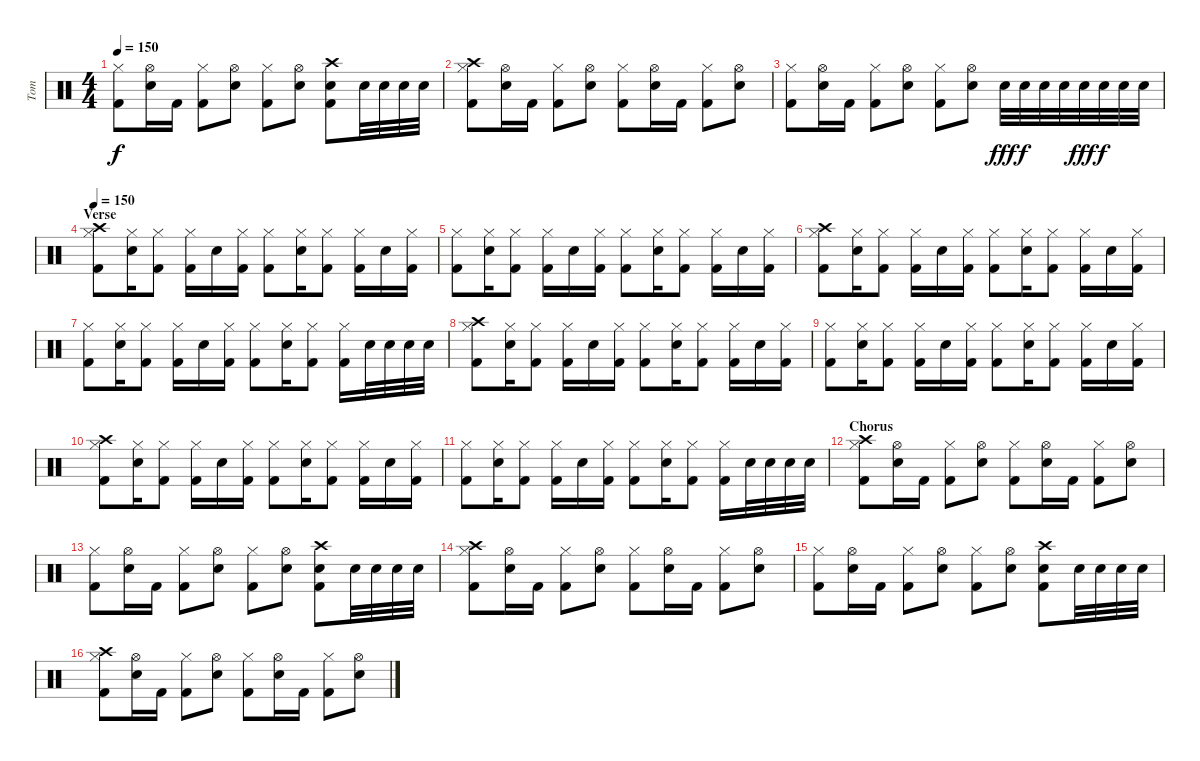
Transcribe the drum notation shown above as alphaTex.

\track ("Tom" "Tom") {instrument percussion}
\staff {score}
\articulation defaults
\ts (4 4)
\tempo 150
\clef neutral
\ks c
("Hi-Hat (closed)" "Kick (hit) 2").8{dy f} ("Hi-Hat (open)" "Electric Snare (hit)").16 "Kick (hit) 2".16 ("Hi-Hat (closed)" "Kick (hit) 2").8 ("Hi-Hat (open)" "Electric Snare (hit)").8 ("Hi-Hat (closed)" "Kick (hit) 2").8 ("Hi-Hat (open)" "Electric Snare (hit)").8 ("Crash high (hit)" "Electric Snare (hit)" "Kick (hit) 2").8 "Electric Snare (hit)".32 "Electric Snare (hit)".32 "Electric Snare (hit)".32 "Electric Snare (hit)".32 |
("Crash high (hit)" "Hi-Hat (closed)" "Kick (hit) 2").8 ("Hi-Hat (open)" "Electric Snare (hit)").16 "Kick (hit) 2".16 ("Hi-Hat (closed)" "Kick (hit) 2").8 ("Hi-Hat (open)" "Electric Snare (hit)").8 ("Hi-Hat (closed)" "Kick (hit) 2").8 ("Hi-Hat (open)" "Electric Snare (hit)").16 "Kick (hit) 2".16 ("Hi-Hat (closed)" "Kick (hit) 2").8 ("Hi-Hat (open)" "Electric Snare (hit)").8 |
("Hi-Hat (closed)" "Kick (hit) 2").8 ("Hi-Hat (open)" "Electric Snare (hit)").16 "Kick (hit) 2".16 ("Hi-Hat (closed)" "Kick (hit) 2").8 ("Hi-Hat (open)" "Electric Snare (hit)").8 ("Hi-Hat (closed)" "Kick (hit) 2").8 ("Hi-Hat (open)" "Electric Snare (hit)").8 "Electric Snare (hit)".32{dy fff} "Electric Snare (hit)".32{dy f} "Electric Snare (hit)".32 "Electric Snare (hit)".32 "Electric Snare (hit)".32{dy fff} "Electric Snare (hit)".32{dy f} "Electric Snare (hit)".32 "Electric Snare (hit)".32 |
\section ("" "Verse")
\tempo 150
("Crash high (hit)" "Hi-Hat (closed)" "Kick (hit) 2").8 ("Hi-Hat (closed)" "Electric Snare (hit)").16 ("Hi-Hat (closed)" "Kick (hit) 2").8 ("Hi-Hat (closed)" "Kick (hit) 2").16 "Electric Snare (hit)".16 ("Hi-Hat (closed)" "Kick (hit) 2").16 ("Hi-Hat (closed)" "Kick (hit) 2").8 ("Hi-Hat (closed)" "Electric Snare (hit)").16 ("Hi-Hat (closed)" "Kick (hit) 2").8 ("Hi-Hat (closed)" "Kick (hit) 2").16 "Electric Snare (hit)".16 ("Hi-Hat (closed)" "Kick (hit) 2").16 |
("Hi-Hat (closed)" "Kick (hit) 2").8 ("Hi-Hat (closed)" "Electric Snare (hit)").16 ("Hi-Hat (closed)" "Kick (hit) 2").8 ("Hi-Hat (closed)" "Kick (hit) 2").16 "Electric Snare (hit)".16 ("Hi-Hat (closed)" "Kick (hit) 2").16 ("Hi-Hat (closed)" "Kick (hit) 2").8 ("Hi-Hat (closed)" "Electric Snare (hit)").16 ("Hi-Hat (closed)" "Kick (hit) 2").8 ("Hi-Hat (closed)" "Kick (hit) 2").16 "Electric Snare (hit)".16 ("Hi-Hat (closed)" "Kick (hit) 2").16 |
("Crash high (hit)" "Hi-Hat (closed)" "Kick (hit) 2").8 ("Hi-Hat (closed)" "Electric Snare (hit)").16 ("Hi-Hat (closed)" "Kick (hit) 2").8 ("Hi-Hat (closed)" "Kick (hit) 2").16 "Electric Snare (hit)".16 ("Hi-Hat (closed)" "Kick (hit) 2").16 ("Hi-Hat (closed)" "Kick (hit) 2").8 ("Hi-Hat (closed)" "Electric Snare (hit)").16 ("Hi-Hat (closed)" "Kick (hit) 2").8 ("Hi-Hat (closed)" "Kick (hit) 2").16 "Electric Snare (hit)".16 ("Hi-Hat (closed)" "Kick (hit) 2").16 |
("Hi-Hat (closed)" "Kick (hit) 2").8 ("Hi-Hat (closed)" "Electric Snare (hit)").16 ("Hi-Hat (closed)" "Kick (hit) 2").8 ("Hi-Hat (closed)" "Kick (hit) 2").16 "Electric Snare (hit)".16 ("Hi-Hat (closed)" "Kick (hit) 2").16 ("Hi-Hat (closed)" "Kick (hit) 2").8 ("Hi-Hat (closed)" "Electric Snare (hit)").16 ("Hi-Hat (closed)" "Kick (hit) 2").8 ("Hi-Hat (closed)" "Kick (hit) 2").16 "Electric Snare (hit)".32 "Electric Snare (hit)".32 "Electric Snare (hit)".32 "Electric Snare (hit)".32 |
("Crash high (hit)" "Hi-Hat (closed)" "Kick (hit) 2").8 ("Hi-Hat (closed)" "Electric Snare (hit)").16 ("Hi-Hat (closed)" "Kick (hit) 2").8 ("Hi-Hat (closed)" "Kick (hit) 2").16 "Electric Snare (hit)".16 ("Hi-Hat (closed)" "Kick (hit) 2").16 ("Hi-Hat (closed)" "Kick (hit) 2").8 ("Hi-Hat (closed)" "Electric Snare (hit)").16 ("Hi-Hat (closed)" "Kick (hit) 2").8 ("Hi-Hat (closed)" "Kick (hit) 2").16 "Electric Snare (hit)".16 ("Hi-Hat (closed)" "Kick (hit) 2").16 |
("Hi-Hat (closed)" "Kick (hit) 2").8 ("Hi-Hat (closed)" "Electric Snare (hit)").16 ("Hi-Hat (closed)" "Kick (hit) 2").8 ("Hi-Hat (closed)" "Kick (hit) 2").16 "Electric Snare (hit)".16 ("Hi-Hat (closed)" "Kick (hit) 2").16 ("Hi-Hat (closed)" "Kick (hit) 2").8 ("Hi-Hat (closed)" "Electric Snare (hit)").16 ("Hi-Hat (closed)" "Kick (hit) 2").8 ("Hi-Hat (closed)" "Kick (hit) 2").16 "Electric Snare (hit)".16 ("Hi-Hat (closed)" "Kick (hit) 2").16 |
("Crash high (hit)" "Hi-Hat (closed)" "Kick (hit) 2").8 ("Hi-Hat (closed)" "Electric Snare (hit)").16 ("Hi-Hat (closed)" "Kick (hit) 2").8 ("Hi-Hat (closed)" "Kick (hit) 2").16 "Electric Snare (hit)".16 ("Hi-Hat (closed)" "Kick (hit) 2").16 ("Hi-Hat (closed)" "Kick (hit) 2").8 ("Hi-Hat (closed)" "Electric Snare (hit)").16 ("Hi-Hat (closed)" "Kick (hit) 2").8 ("Hi-Hat (closed)" "Kick (hit) 2").16 "Electric Snare (hit)".16 ("Hi-Hat (closed)" "Kick (hit) 2").16 |
("Hi-Hat (closed)" "Kick (hit) 2").8 ("Hi-Hat (closed)" "Electric Snare (hit)").16 ("Hi-Hat (closed)" "Kick (hit) 2").8 ("Hi-Hat (closed)" "Kick (hit) 2").16 "Electric Snare (hit)".16 ("Hi-Hat (closed)" "Kick (hit) 2").16 ("Hi-Hat (closed)" "Kick (hit) 2").8 ("Hi-Hat (closed)" "Electric Snare (hit)").16 ("Hi-Hat (closed)" "Kick (hit) 2").8 ("Hi-Hat (closed)" "Kick (hit) 2").16 "Electric Snare (hit)".32 "Electric Snare (hit)".32 "Electric Snare (hit)".32 "Electric Snare (hit)".32 |
\section ("" "Chorus")
("Crash high (hit)" "Hi-Hat (closed)" "Kick (hit) 2").8 ("Hi-Hat (open)" "Electric Snare (hit)").16 "Kick (hit) 2".16 ("Hi-Hat (closed)" "Kick (hit) 2").8 ("Hi-Hat (open)" "Electric Snare (hit)").8 ("Hi-Hat (closed)" "Kick (hit) 2").8 ("Hi-Hat (open)" "Electric Snare (hit)").16 "Kick (hit) 2".16 ("Hi-Hat (closed)" "Kick (hit) 2").8 ("Hi-Hat (open)" "Electric Snare (hit)").8 |
("Hi-Hat (closed)" "Kick (hit) 2").8 ("Hi-Hat (open)" "Electric Snare (hit)").16 "Kick (hit) 2".16 ("Hi-Hat (closed)" "Kick (hit) 2").8 ("Hi-Hat (open)" "Electric Snare (hit)").8 ("Hi-Hat (closed)" "Kick (hit) 2").8 ("Hi-Hat (open)" "Electric Snare (hit)").8 ("Crash high (hit)" "Electric Snare (hit)" "Kick (hit) 2").8 "Electric Snare (hit)".32 "Electric Snare (hit)".32 "Electric Snare (hit)".32 "Electric Snare (hit)".32 |
("Crash high (hit)" "Hi-Hat (closed)" "Kick (hit) 2").8 ("Hi-Hat (open)" "Electric Snare (hit)").16 "Kick (hit) 2".16 ("Hi-Hat (closed)" "Kick (hit) 2").8 ("Hi-Hat (open)" "Electric Snare (hit)").8 ("Hi-Hat (closed)" "Kick (hit) 2").8 ("Hi-Hat (open)" "Electric Snare (hit)").16 "Kick (hit) 2".16 ("Hi-Hat (closed)" "Kick (hit) 2").8 ("Hi-Hat (open)" "Electric Snare (hit)").8 |
("Hi-Hat (closed)" "Kick (hit) 2").8 ("Hi-Hat (open)" "Electric Snare (hit)").16 "Kick (hit) 2".16 ("Hi-Hat (closed)" "Kick (hit) 2").8 ("Hi-Hat (open)" "Electric Snare (hit)").8 ("Hi-Hat (closed)" "Kick (hit) 2").8 ("Hi-Hat (open)" "Electric Snare (hit)").8 ("Crash high (hit)" "Electric Snare (hit)" "Kick (hit) 2").8 "Electric Snare (hit)".32 "Electric Snare (hit)".32 "Electric Snare (hit)".32 "Electric Snare (hit)".32 |
("Crash high (hit)" "Hi-Hat (closed)" "Kick (hit) 2").8 ("Hi-Hat (open)" "Electric Snare (hit)").16 "Kick (hit) 2".16 ("Hi-Hat (closed)" "Kick (hit) 2").8 ("Hi-Hat (open)" "Electric Snare (hit)").8 ("Hi-Hat (closed)" "Kick (hit) 2").8 ("Hi-Hat (open)" "Electric Snare (hit)").16 "Kick (hit) 2".16 ("Hi-Hat (closed)" "Kick (hit) 2").8 ("Hi-Hat (open)" "Electric Snare (hit)").8
